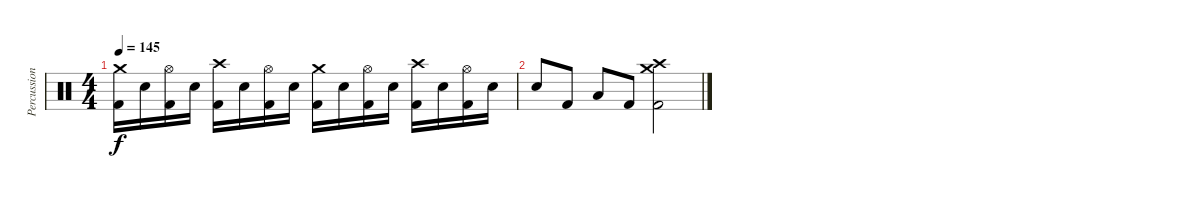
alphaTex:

\track ("Percussion" "Percussion") {instrument percussion}
\staff {score}
\articulation defaults
\ts (4 4)
\tempo 145
\clef neutral
\ks c
("Crash medium (hit)" "Kick (hit) 2").16{dy f} "Electric Snare (hit)".16 ("Hi-Hat (open)" "Kick (hit) 2").16 "Electric Snare (hit)".16 ("Crash high (hit)" "Kick (hit) 2").16 "Electric Snare (hit)".16 ("Hi-Hat (open)" "Kick (hit) 2").16 "Electric Snare (hit)".16 ("Crash medium (hit)" "Kick (hit) 2").16 "Electric Snare (hit)".16 ("Hi-Hat (open)" "Kick (hit) 2").16 "Electric Snare (hit)".16 ("Crash high (hit)" "Kick (hit) 2").16 "Electric Snare (hit)".16 ("Hi-Hat (open)" "Kick (hit) 2").16 "Electric Snare (hit)".16 |
"Electric Snare (hit)".8 "Kick (hit) 2".8 "Low Tom (hit)".8 "Kick (hit) 2".8 ("Crash high (hit)" "Crash medium (hit)" "Kick (hit) 2").2
